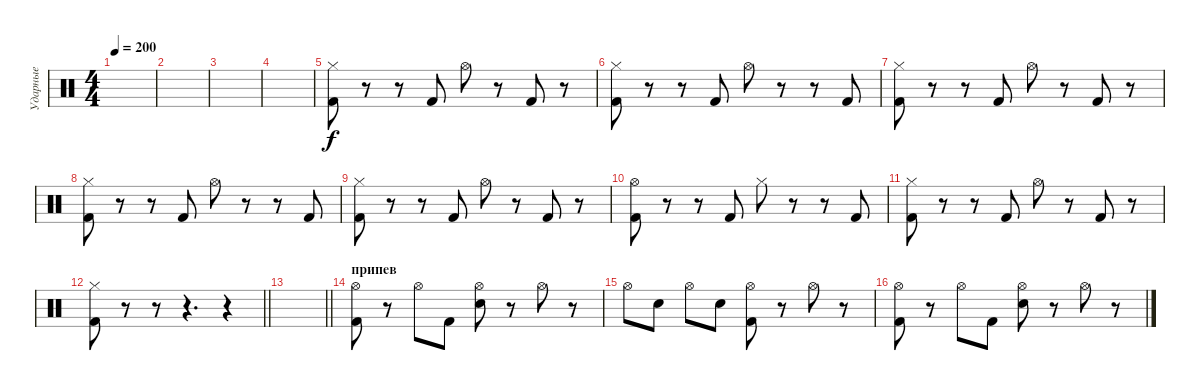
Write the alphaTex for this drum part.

\track ("Ударные" "Ударные") {instrument percussion}
\staff {score}
\articulation defaults
\ts (4 4)
\tempo 200
\clef neutral
\ks c
|
|
|
|
("Hi-Hat (closed)" "Kick (hit) 2").8 r.8 r.8 "Kick (hit) 2".8 "Hi-Hat (open)".8 r.8 "Kick (hit) 2".8 r.8 |
("Hi-Hat (closed)" "Kick (hit) 2").8 r.8 r.8 "Kick (hit) 2".8 "Hi-Hat (open)".8 r.8 r.8 "Kick (hit) 2".8 |
("Hi-Hat (closed)" "Kick (hit) 2").8 r.8 r.8 "Kick (hit) 2".8 "Hi-Hat (open)".8 r.8 "Kick (hit) 2".8 r.8 |
("Hi-Hat (closed)" "Kick (hit) 2").8 r.8 r.8 "Kick (hit) 2".8 "Hi-Hat (open)".8 r.8 r.8 "Kick (hit) 2".8 |
("Hi-Hat (closed)" "Kick (hit) 2").8 r.8 r.8 "Kick (hit) 2".8 "Hi-Hat (open)".8 r.8 "Kick (hit) 2".8 r.8 |
("Hi-Hat (open)" "Kick (hit) 2").8 r.8 r.8 "Kick (hit) 2".8 "Hi-Hat (closed)".8 r.8 r.8 "Kick (hit) 2".8 |
("Hi-Hat (closed)" "Kick (hit) 2").8 r.8 r.8 "Kick (hit) 2".8 "Hi-Hat (open)".8 r.8 "Kick (hit) 2".8 r.8 |
\barLineRight lightlight
("Hi-Hat (closed)" "Kick (hit) 2").8 r.8 r.8 r.4{d} r.4 |
\barLineRight lightlight
|
\section ("" "припев")
("Hi-Hat (open)" "Kick (hit) 2").8 r.8 "Hi-Hat (open)".8 "Kick (hit) 2".8 ("Hi-Hat (open)" "Electric Snare (hit)").8 r.8 "Hi-Hat (open)".8 r.8 |
"Hi-Hat (open)".8 "Electric Snare (hit)".8 "Hi-Hat (open)".8 "Electric Snare (hit)".8 ("Hi-Hat (open)" "Kick (hit) 2").8 r.8 "Hi-Hat (open)".8 r.8 |
("Hi-Hat (open)" "Kick (hit) 2").8 r.8 "Hi-Hat (open)".8 "Kick (hit) 2".8 ("Hi-Hat (open)" "Electric Snare (hit)").8 r.8 "Hi-Hat (open)".8 r.8
